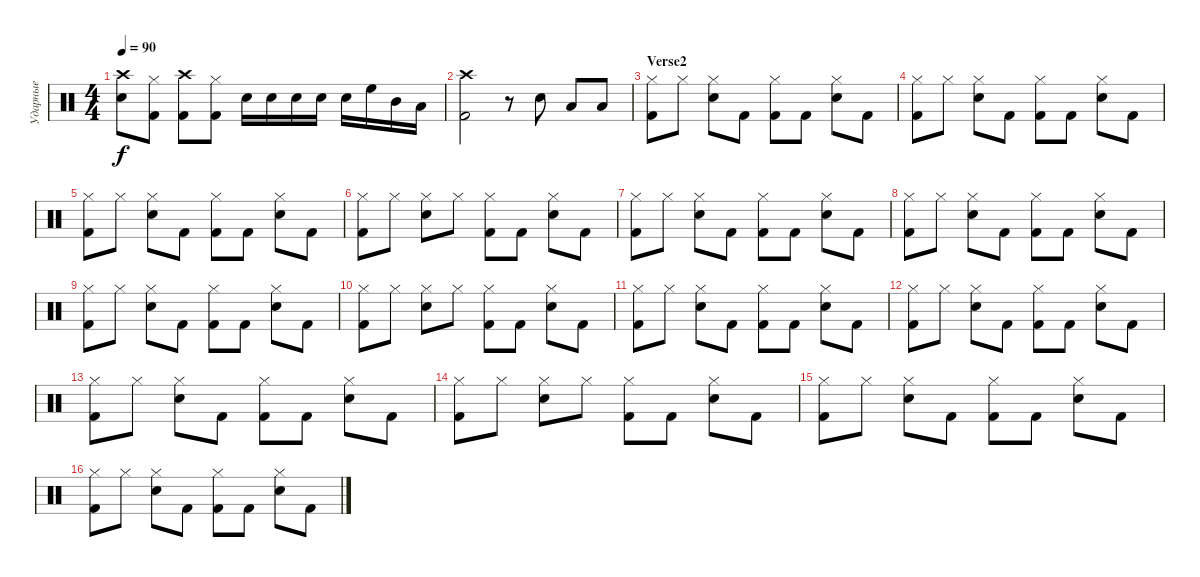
\track ("Ударные" "Ударные") {instrument percussion}
\staff {score}
\articulation defaults
\ts (4 4)
\tempo 90
\clef neutral
\ks c
("Snare (hit) 2" "Crash high (hit)").8{dy f} ("Hi-Hat (closed)" "Kick (hit) 2").8 ("Kick (hit) 2" "Crash high (hit)").8 ("Hi-Hat (closed)" "Kick (hit) 2").8 "Snare (hit) 2".16 "Snare (hit) 2".16 "Snare (hit) 2".16 "Snare (hit) 2".16 "Snare (hit) 2".16 "High Floor Tom (hit)".16 "Mid Tom (hit)".16 "Low Tom (hit)".16 |
("Crash high (hit)" "Kick (hit) 2").2 r.8 "Snare (hit) 2".8 "Low Tom (hit)".8 "Low Floor Tom (hit)".8 |
\section ("" "Verse2")
("Hi-Hat (closed)" "Kick (hit) 2").8 "Hi-Hat (closed)".8 ("Hi-Hat (closed)" "Snare (hit) 2").8 "Kick (hit) 2".8 ("Hi-Hat (closed)" "Kick (hit) 2").8 "Kick (hit) 2".8 ("Hi-Hat (closed)" "Snare (hit) 2").8 "Kick (hit) 2".8 |
("Hi-Hat (closed)" "Kick (hit) 2").8 "Hi-Hat (closed)".8 ("Hi-Hat (closed)" "Snare (hit) 2").8 "Kick (hit) 2".8 ("Hi-Hat (closed)" "Kick (hit) 2").8 "Kick (hit) 2".8 ("Hi-Hat (closed)" "Snare (hit) 2").8 "Kick (hit) 2".8 |
("Hi-Hat (closed)" "Kick (hit) 2").8 "Hi-Hat (closed)".8 ("Hi-Hat (closed)" "Snare (hit) 2").8 "Kick (hit) 2".8 ("Hi-Hat (closed)" "Kick (hit) 2").8 "Kick (hit) 2".8 ("Hi-Hat (closed)" "Snare (hit) 2").8 "Kick (hit) 2".8 |
("Hi-Hat (closed)" "Kick (hit) 2").8 "Hi-Hat (closed)".8 ("Snare (hit) 2" "Hi-Hat (closed)").8 "Hi-Hat (closed)".8 ("Hi-Hat (closed)" "Kick (hit) 2").8 "Kick (hit) 2".8 ("Hi-Hat (closed)" "Snare (hit) 2").8 "Kick (hit) 2".8 |
("Hi-Hat (closed)" "Kick (hit) 2").8 "Hi-Hat (closed)".8 ("Hi-Hat (closed)" "Snare (hit) 2").8 "Kick (hit) 2".8 ("Hi-Hat (closed)" "Kick (hit) 2").8 "Kick (hit) 2".8 ("Hi-Hat (closed)" "Snare (hit) 2").8 "Kick (hit) 2".8 |
("Hi-Hat (closed)" "Kick (hit) 2").8 "Hi-Hat (closed)".8 ("Hi-Hat (closed)" "Snare (hit) 2").8 "Kick (hit) 2".8 ("Hi-Hat (closed)" "Kick (hit) 2").8 "Kick (hit) 2".8 ("Hi-Hat (closed)" "Snare (hit) 2").8 "Kick (hit) 2".8 |
("Hi-Hat (closed)" "Kick (hit) 2").8 "Hi-Hat (closed)".8 ("Hi-Hat (closed)" "Snare (hit) 2").8 "Kick (hit) 2".8 ("Hi-Hat (closed)" "Kick (hit) 2").8 "Kick (hit) 2".8 ("Hi-Hat (closed)" "Snare (hit) 2").8 "Kick (hit) 2".8 |
("Hi-Hat (closed)" "Kick (hit) 2").8 "Hi-Hat (closed)".8 ("Snare (hit) 2" "Hi-Hat (closed)").8 "Hi-Hat (closed)".8 ("Hi-Hat (closed)" "Kick (hit) 2").8 "Kick (hit) 2".8 ("Hi-Hat (closed)" "Snare (hit) 2").8 "Kick (hit) 2".8 |
("Hi-Hat (closed)" "Kick (hit) 2").8 "Hi-Hat (closed)".8 ("Hi-Hat (closed)" "Snare (hit) 2").8 "Kick (hit) 2".8 ("Hi-Hat (closed)" "Kick (hit) 2").8 "Kick (hit) 2".8 ("Hi-Hat (closed)" "Snare (hit) 2").8 "Kick (hit) 2".8 |
("Hi-Hat (closed)" "Kick (hit) 2").8 "Hi-Hat (closed)".8 ("Hi-Hat (closed)" "Snare (hit) 2").8 "Kick (hit) 2".8 ("Hi-Hat (closed)" "Kick (hit) 2").8 "Kick (hit) 2".8 ("Hi-Hat (closed)" "Snare (hit) 2").8 "Kick (hit) 2".8 |
("Hi-Hat (closed)" "Kick (hit) 2").8 "Hi-Hat (closed)".8 ("Hi-Hat (closed)" "Snare (hit) 2").8 "Kick (hit) 2".8 ("Hi-Hat (closed)" "Kick (hit) 2").8 "Kick (hit) 2".8 ("Hi-Hat (closed)" "Snare (hit) 2").8 "Kick (hit) 2".8 |
("Hi-Hat (closed)" "Kick (hit) 2").8 "Hi-Hat (closed)".8 ("Snare (hit) 2" "Hi-Hat (closed)").8 "Hi-Hat (closed)".8 ("Hi-Hat (closed)" "Kick (hit) 2").8 "Kick (hit) 2".8 ("Hi-Hat (closed)" "Snare (hit) 2").8 "Kick (hit) 2".8 |
("Hi-Hat (closed)" "Kick (hit) 2").8 "Hi-Hat (closed)".8 ("Hi-Hat (closed)" "Snare (hit) 2").8 "Kick (hit) 2".8 ("Hi-Hat (closed)" "Kick (hit) 2").8 "Kick (hit) 2".8 ("Hi-Hat (closed)" "Snare (hit) 2").8 "Kick (hit) 2".8 |
("Hi-Hat (closed)" "Kick (hit) 2").8 "Hi-Hat (closed)".8 ("Hi-Hat (closed)" "Snare (hit) 2").8 "Kick (hit) 2".8 ("Hi-Hat (closed)" "Kick (hit) 2").8 "Kick (hit) 2".8 ("Hi-Hat (closed)" "Snare (hit) 2").8 "Kick (hit) 2".8
